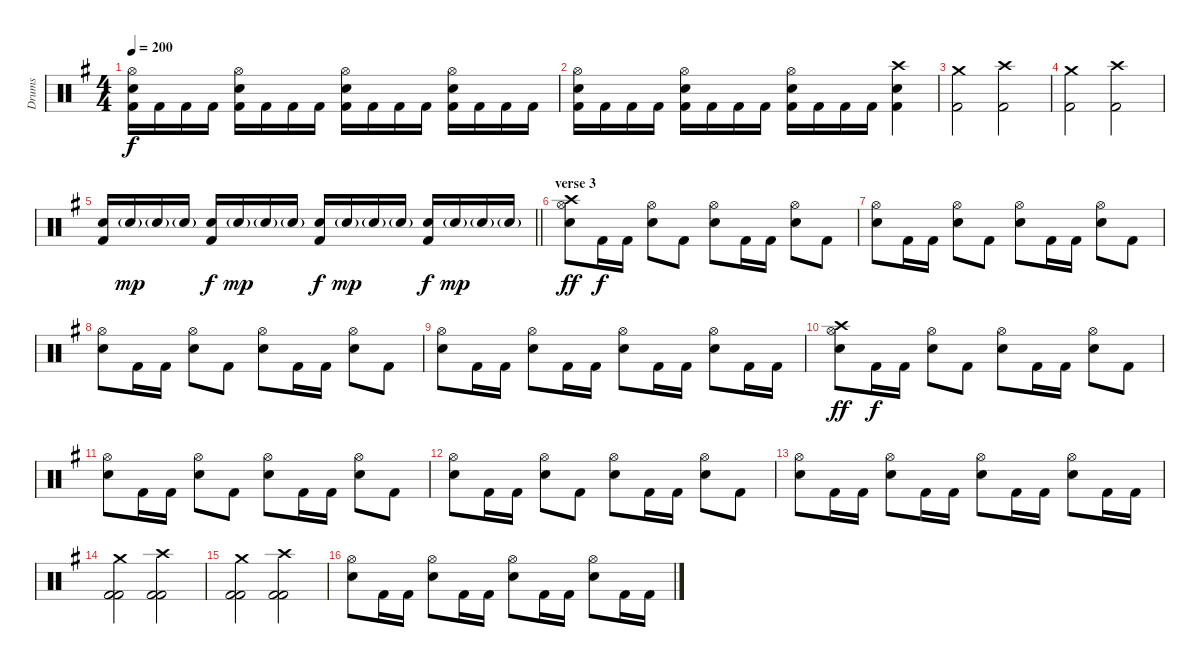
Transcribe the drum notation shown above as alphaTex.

\track ("Drums" "Drums") {instrument percussion}
\staff {score}
\articulation defaults
\ts (4 4)
\tempo 200
\clef neutral
\ks eminor
("Hi-Hat (open)" "Snare (hit) 2" "Kick (hit) 2").16{dy f} "Kick (hit) 2".16 "Kick (hit) 2".16 "Kick (hit) 2".16 ("Hi-Hat (open)" "Snare (hit) 2" "Kick (hit) 2").16 "Kick (hit) 2".16 "Kick (hit) 2".16 "Kick (hit) 2".16 ("Hi-Hat (open)" "Snare (hit) 2" "Kick (hit) 2").16 "Kick (hit) 2".16 "Kick (hit) 2".16 "Kick (hit) 2".16 ("Hi-Hat (open)" "Snare (hit) 2" "Kick (hit) 2").16 "Kick (hit) 2".16 "Kick (hit) 2".16 "Kick (hit) 2".16 |
("Hi-Hat (open)" "Snare (hit) 2" "Kick (hit) 2").16 "Kick (hit) 2".16 "Kick (hit) 2".16 "Kick (hit) 2".16 ("Hi-Hat (open)" "Snare (hit) 2" "Kick (hit) 2").16 "Kick (hit) 2".16 "Kick (hit) 2".16 "Kick (hit) 2".16 ("Hi-Hat (open)" "Snare (hit) 2" "Kick (hit) 2").16 "Kick (hit) 2".16 "Kick (hit) 2".16 "Kick (hit) 2".16 ("Crash high (hit)" "Snare (hit) 2" "Kick (hit) 2").4 |
("Crash medium (hit)" "Kick (hit) 2").2 ("Crash high (hit)" "Kick (hit) 2").2 |
("Crash medium (hit)" "Kick (hit) 2").2 ("Crash high (hit)" "Kick (hit) 2").2 |
\barLineRight lightlight
("Snare (hit) 2" "Kick (hit) 2").16 "Snare (hit) 2"{g}.16{dy mp} "Snare (hit) 2"{g}.16 "Snare (hit) 2"{g}.16 ("Snare (hit) 2" "Kick (hit) 2").16{dy f} "Snare (hit) 2"{g}.16{dy mp} "Snare (hit) 2"{g}.16 "Snare (hit) 2"{g}.16 ("Snare (hit) 2" "Kick (hit) 2").16{dy f} "Snare (hit) 2"{g}.16{dy mp} "Snare (hit) 2"{g}.16 "Snare (hit) 2"{g}.16 ("Snare (hit) 2" "Kick (hit) 2").16{dy f} "Snare (hit) 2"{g}.16{dy mp} "Snare (hit) 2"{g}.16 "Snare (hit) 2"{g}.16 |
\section ("" "verse 3")
("Crash high (hit)" "Hi-Hat (open)" "Snare (hit) 2").8{dy ff} "Kick (hit) 2".16{dy f} "Kick (hit) 2".16 ("Hi-Hat (open)" "Snare (hit) 2").8 "Kick (hit) 2".8 ("Hi-Hat (open)" "Snare (hit) 2").8 "Kick (hit) 2".16 "Kick (hit) 2".16 ("Hi-Hat (open)" "Snare (hit) 2").8 "Kick (hit) 2".8 |
("Hi-Hat (open)" "Snare (hit) 2").8 "Kick (hit) 2".16 "Kick (hit) 2".16 ("Hi-Hat (open)" "Snare (hit) 2").8 "Kick (hit) 2".8 ("Hi-Hat (open)" "Snare (hit) 2").8 "Kick (hit) 2".16 "Kick (hit) 2".16 ("Hi-Hat (open)" "Snare (hit) 2").8 "Kick (hit) 2".8 |
("Hi-Hat (open)" "Snare (hit) 2").8 "Kick (hit) 2".16 "Kick (hit) 2".16 ("Hi-Hat (open)" "Snare (hit) 2").8 "Kick (hit) 2".8 ("Hi-Hat (open)" "Snare (hit) 2").8 "Kick (hit) 2".16 "Kick (hit) 2".16 ("Hi-Hat (open)" "Snare (hit) 2").8 "Kick (hit) 2".8 |
("Hi-Hat (open)" "Snare (hit) 2").8 "Kick (hit) 2".16 "Kick (hit) 2".16 ("Hi-Hat (open)" "Snare (hit) 2").8 "Kick (hit) 2".16 "Kick (hit) 2".16 ("Hi-Hat (open)" "Snare (hit) 2").8 "Kick (hit) 2".16 "Kick (hit) 2".16 ("Hi-Hat (open)" "Snare (hit) 2").8 "Kick (hit) 2".16 "Kick (hit) 2".16 |
("Crash high (hit)" "Hi-Hat (open)" "Snare (hit) 2").8{dy ff} "Kick (hit) 2".16{dy f} "Kick (hit) 2".16 ("Hi-Hat (open)" "Snare (hit) 2").8 "Kick (hit) 2".8 ("Hi-Hat (open)" "Snare (hit) 2").8 "Kick (hit) 2".16 "Kick (hit) 2".16 ("Hi-Hat (open)" "Snare (hit) 2").8 "Kick (hit) 2".8 |
("Hi-Hat (open)" "Snare (hit) 2").8 "Kick (hit) 2".16 "Kick (hit) 2".16 ("Hi-Hat (open)" "Snare (hit) 2").8 "Kick (hit) 2".8 ("Hi-Hat (open)" "Snare (hit) 2").8 "Kick (hit) 2".16 "Kick (hit) 2".16 ("Hi-Hat (open)" "Snare (hit) 2").8 "Kick (hit) 2".8 |
("Hi-Hat (open)" "Snare (hit) 2").8 "Kick (hit) 2".16 "Kick (hit) 2".16 ("Hi-Hat (open)" "Snare (hit) 2").8 "Kick (hit) 2".8 ("Hi-Hat (open)" "Snare (hit) 2").8 "Kick (hit) 2".16 "Kick (hit) 2".16 ("Hi-Hat (open)" "Snare (hit) 2").8 "Kick (hit) 2".8 |
("Hi-Hat (open)" "Snare (hit) 2").8 "Kick (hit) 2".16 "Kick (hit) 2".16 ("Hi-Hat (open)" "Snare (hit) 2").8 "Kick (hit) 2".16 "Kick (hit) 2".16 ("Hi-Hat (open)" "Snare (hit) 2").8 "Kick (hit) 2".16 "Kick (hit) 2".16 ("Hi-Hat (open)" "Snare (hit) 2").8 "Kick (hit) 2".16 "Kick (hit) 2".16 |
("Kick (hit) 2" "Kick (hit) 2" "Crash medium (hit)").2 ("Kick (hit) 2" "Kick (hit) 2" "Crash high (hit)").2 |
("Kick (hit) 2" "Kick (hit) 2" "Crash medium (hit)").2 ("Kick (hit) 2" "Kick (hit) 2" "Crash high (hit)").2 |
("Hi-Hat (open)" "Snare (hit) 2").8 "Kick (hit) 2".16 "Kick (hit) 2".16 ("Hi-Hat (open)" "Snare (hit) 2").8 "Kick (hit) 2".16 "Kick (hit) 2".16 ("Hi-Hat (open)" "Snare (hit) 2").8 "Kick (hit) 2".16 "Kick (hit) 2".16 ("Hi-Hat (open)" "Snare (hit) 2").8 "Kick (hit) 2".16 "Kick (hit) 2".16
